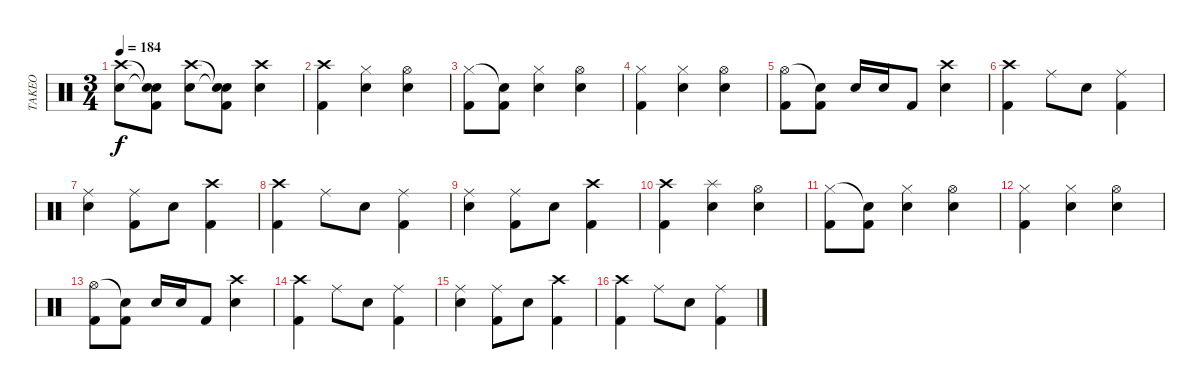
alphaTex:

\track ("TAKEO" "TAKEO") {instrument percussion}
\staff {score}
\articulation defaults
\ts (3 4)
\tempo 184
\clef neutral
\ks c
("Crash high (hit)" "Electric Snare (hit)").8{dy f} ("Snare (hit)"{t} "Snare (hit)"{t} "Kick (hit) 2").8 ("Crash high (hit)" "Electric Snare (hit)").8 ("Snare (hit)"{t} "Snare (hit)"{t} "Kick (hit) 2").8 ("Crash high (hit)" "Electric Snare (hit)").4 |
("Crash high (hit)" "Kick (hit) 2").4 ("Hi-Hat (closed)" "Electric Snare (hit)").4 ("Hi-Hat (open)" "Electric Snare (hit)").4 |
("Hi-Hat (closed)" "Kick (hit) 2").8 ("Snare (hit)"{t} "Kick (hit) 2").8 ("Hi-Hat (closed)" "Electric Snare (hit)").4 ("Hi-Hat (open)" "Electric Snare (hit)").4 |
("Hi-Hat (closed)" "Kick (hit) 2").4 ("Hi-Hat (closed)" "Electric Snare (hit)").4 ("Hi-Hat (open)" "Electric Snare (hit)").4 |
("Hi-Hat (open)" "Kick (hit) 2").8 ("Snare (hit)"{t} "Kick (hit) 2").8 "Electric Snare (hit)".16 "Electric Snare (hit)".16 "Kick (hit) 2".8 ("Crash high (hit)" "Electric Snare (hit)").4 |
("Crash high (hit)" "Kick (hit) 2").4 "Ride (middle)".8 "Electric Snare (hit)".8 ("Ride (middle)" "Kick (hit) 2").4 |
("Ride (middle)" "Electric Snare (hit)").4 ("Ride (middle)" "Kick (hit) 2").8 "Electric Snare (hit)".8 ("Crash high (hit)" "Kick (hit) 2").4 |
("Crash high (hit)" "Kick (hit) 2").4 "Ride (middle)".8 "Electric Snare (hit)".8 ("Ride (middle)" "Kick (hit) 2").4 |
("Ride (middle)" "Electric Snare (hit)").4 ("Ride (middle)" "Kick (hit) 2").8 "Electric Snare (hit)".8 ("Crash high (hit)" "Kick (hit) 2").4 |
("Crash high (hit)" "Kick (hit) 2").4 ("Splash (hit)" "Electric Snare (hit)").4 ("Hi-Hat (open)" "Electric Snare (hit)").4 |
("Hi-Hat (closed)" "Kick (hit) 2").8 ("Snare (hit)"{t} "Kick (hit) 2").8 ("Hi-Hat (closed)" "Electric Snare (hit)").4 ("Hi-Hat (open)" "Electric Snare (hit)").4 |
("Hi-Hat (closed)" "Kick (hit) 2").4 ("Hi-Hat (closed)" "Electric Snare (hit)").4 ("Hi-Hat (open)" "Electric Snare (hit)").4 |
("Hi-Hat (open)" "Kick (hit) 2").8 ("Snare (hit)"{t} "Kick (hit) 2").8 "Electric Snare (hit)".16 "Electric Snare (hit)".16 "Kick (hit) 2".8 ("Crash high (hit)" "Electric Snare (hit)").4 |
("Crash high (hit)" "Kick (hit) 2").4 "Ride (middle)".8 "Electric Snare (hit)".8 ("Ride (middle)" "Kick (hit) 2").4 |
("Ride (middle)" "Electric Snare (hit)").4 ("Ride (middle)" "Kick (hit) 2").8 "Electric Snare (hit)".8 ("Crash high (hit)" "Kick (hit) 2").4 |
("Crash high (hit)" "Kick (hit) 2").4 "Ride (middle)".8 "Electric Snare (hit)".8 ("Ride (middle)" "Kick (hit) 2").4
